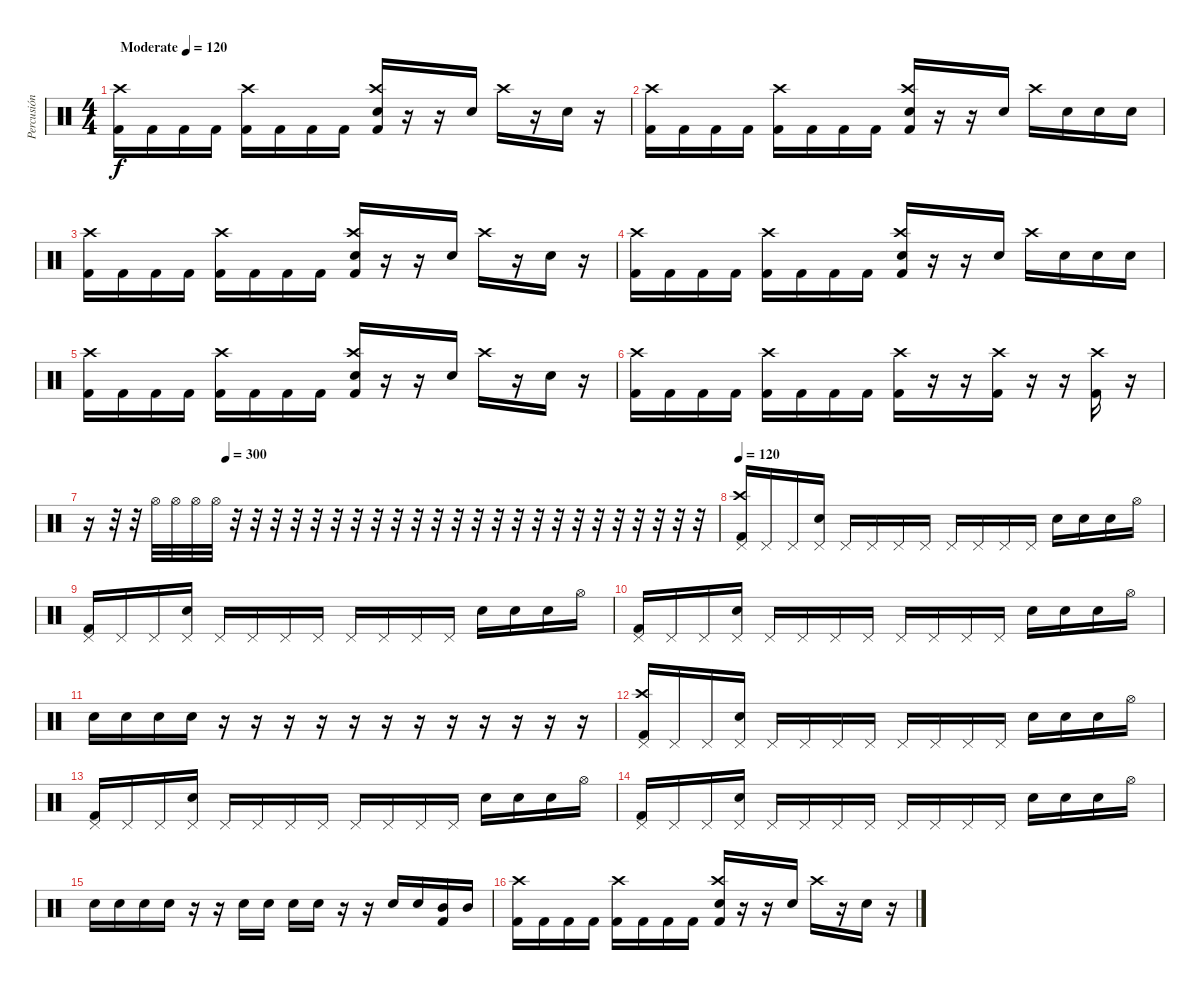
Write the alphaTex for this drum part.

\track ("Percusión" "Percusión") {instrument percussion}
\staff {score}
\articulation defaults
\ts (4 4)
\tempo (120 "Moderate")
\clef neutral
\ks c
("Kick (hit) 2" "Crash high (hit)").16{dy f} "Kick (hit) 2".16 "Kick (hit) 2".16 "Kick (hit) 2".16 ("Kick (hit) 2" "Crash high (hit)").16 "Kick (hit) 2".16 "Kick (hit) 2".16 "Kick (hit) 2".16 ("Kick (hit) 2" "Crash high (hit)" "Electric Snare (hit)").16 r.16 r.16 "Electric Snare (hit)".16 "Crash high (hit)".16 r.16 "Electric Snare (hit)".16 r.16 |
("Kick (hit) 2" "Crash high (hit)").16 "Kick (hit) 2".16 "Kick (hit) 2".16 "Kick (hit) 2".16 ("Kick (hit) 2" "Crash high (hit)").16 "Kick (hit) 2".16 "Kick (hit) 2".16 "Kick (hit) 2".16 ("Kick (hit) 2" "Crash high (hit)" "Electric Snare (hit)").16 r.16 r.16 "Electric Snare (hit)".16 "Crash high (hit)".16 "Electric Snare (hit)".16 "Electric Snare (hit)".16 "Electric Snare (hit)".16 |
("Kick (hit) 2" "Crash high (hit)").16 "Kick (hit) 2".16 "Kick (hit) 2".16 "Kick (hit) 2".16 ("Kick (hit) 2" "Crash high (hit)").16 "Kick (hit) 2".16 "Kick (hit) 2".16 "Kick (hit) 2".16 ("Kick (hit) 2" "Crash high (hit)" "Electric Snare (hit)").16 r.16 r.16 "Electric Snare (hit)".16 "Crash high (hit)".16 r.16 "Electric Snare (hit)".16 r.16 |
("Kick (hit) 2" "Crash high (hit)").16 "Kick (hit) 2".16 "Kick (hit) 2".16 "Kick (hit) 2".16 ("Kick (hit) 2" "Crash high (hit)").16 "Kick (hit) 2".16 "Kick (hit) 2".16 "Kick (hit) 2".16 ("Kick (hit) 2" "Crash high (hit)" "Electric Snare (hit)").16 r.16 r.16 "Electric Snare (hit)".16 "Crash high (hit)".16 "Electric Snare (hit)".16 "Electric Snare (hit)".16 "Electric Snare (hit)".16 |
("Kick (hit) 2" "Crash high (hit)").16 "Kick (hit) 2".16 "Kick (hit) 2".16 "Kick (hit) 2".16 ("Kick (hit) 2" "Crash high (hit)").16 "Kick (hit) 2".16 "Kick (hit) 2".16 "Kick (hit) 2".16 ("Kick (hit) 2" "Crash high (hit)" "Electric Snare (hit)").16 r.16 r.16 "Electric Snare (hit)".16 "Crash high (hit)".16 r.16 "Electric Snare (hit)".16 r.16 |
("Kick (hit) 2" "Crash high (hit)").16 "Kick (hit) 2".16 "Kick (hit) 2".16 "Kick (hit) 2".16 ("Kick (hit) 2" "Crash high (hit)").16 "Kick (hit) 2".16 "Kick (hit) 2".16 "Kick (hit) 2".16 ("Kick (hit) 2" "Crash high (hit)").16 r.16 r.16 ("Kick (hit) 2" "Crash high (hit)").16 r.16 r.16 ("Kick (hit) 2" "Crash high (hit)").16 r.16 |
\tempo (300 0.21875)
r.16 r.32 r.32 "Hi-Hat (open)".32 "Hi-Hat (open)".32 "Hi-Hat (open)".32 "Hi-Hat (open)".32 r.32 r.32 r.32 r.32 r.32 r.32 r.32 r.32 r.32 r.32 r.32 r.32 r.32 r.32 r.32 r.32 r.32 r.32 r.32 r.32 r.32 r.32 r.32 r.32 |
\tempo 120
("Crash high (hit)" "Pedal Hi-Hat (hit)" "Kick (hit) 2").16 "Pedal Hi-Hat (hit)".16 "Pedal Hi-Hat (hit)".16 ("Pedal Hi-Hat (hit)" "Electric Snare (hit)").16 "Pedal Hi-Hat (hit)".16 "Pedal Hi-Hat (hit)".16 "Pedal Hi-Hat (hit)".16 "Pedal Hi-Hat (hit)".16 "Pedal Hi-Hat (hit)".16 "Pedal Hi-Hat (hit)".16 "Pedal Hi-Hat (hit)".16 "Pedal Hi-Hat (hit)".16 "Electric Snare (hit)".16 "Electric Snare (hit)".16 "Electric Snare (hit)".16 "Hi-Hat (open)".16 |
("Pedal Hi-Hat (hit)" "Kick (hit) 2").16 "Pedal Hi-Hat (hit)".16 "Pedal Hi-Hat (hit)".16 ("Pedal Hi-Hat (hit)" "Electric Snare (hit)").16 "Pedal Hi-Hat (hit)".16 "Pedal Hi-Hat (hit)".16 "Pedal Hi-Hat (hit)".16 "Pedal Hi-Hat (hit)".16 "Pedal Hi-Hat (hit)".16 "Pedal Hi-Hat (hit)".16 "Pedal Hi-Hat (hit)".16 "Pedal Hi-Hat (hit)".16 "Electric Snare (hit)".16 "Electric Snare (hit)".16 "Electric Snare (hit)".16 "Hi-Hat (open)".16 |
("Pedal Hi-Hat (hit)" "Kick (hit) 2").16 "Pedal Hi-Hat (hit)".16 "Pedal Hi-Hat (hit)".16 ("Pedal Hi-Hat (hit)" "Electric Snare (hit)").16 "Pedal Hi-Hat (hit)".16 "Pedal Hi-Hat (hit)".16 "Pedal Hi-Hat (hit)".16 "Pedal Hi-Hat (hit)".16 "Pedal Hi-Hat (hit)".16 "Pedal Hi-Hat (hit)".16 "Pedal Hi-Hat (hit)".16 "Pedal Hi-Hat (hit)".16 "Electric Snare (hit)".16 "Electric Snare (hit)".16 "Electric Snare (hit)".16 "Hi-Hat (open)".16 |
"Electric Snare (hit)".16 "Electric Snare (hit)".16 "Electric Snare (hit)".16 "Electric Snare (hit)".16 r.16 r.16 r.16 r.16 r.16 r.16 r.16 r.16 r.16 r.16 r.16 r.16 |
("Crash high (hit)" "Pedal Hi-Hat (hit)" "Kick (hit) 2").16 "Pedal Hi-Hat (hit)".16 "Pedal Hi-Hat (hit)".16 ("Pedal Hi-Hat (hit)" "Electric Snare (hit)").16 "Pedal Hi-Hat (hit)".16 "Pedal Hi-Hat (hit)".16 "Pedal Hi-Hat (hit)".16 "Pedal Hi-Hat (hit)".16 "Pedal Hi-Hat (hit)".16 "Pedal Hi-Hat (hit)".16 "Pedal Hi-Hat (hit)".16 "Pedal Hi-Hat (hit)".16 "Electric Snare (hit)".16 "Electric Snare (hit)".16 "Electric Snare (hit)".16 "Hi-Hat (open)".16 |
("Pedal Hi-Hat (hit)" "Kick (hit) 2").16 "Pedal Hi-Hat (hit)".16 "Pedal Hi-Hat (hit)".16 ("Pedal Hi-Hat (hit)" "Electric Snare (hit)").16 "Pedal Hi-Hat (hit)".16 "Pedal Hi-Hat (hit)".16 "Pedal Hi-Hat (hit)".16 "Pedal Hi-Hat (hit)".16 "Pedal Hi-Hat (hit)".16 "Pedal Hi-Hat (hit)".16 "Pedal Hi-Hat (hit)".16 "Pedal Hi-Hat (hit)".16 "Electric Snare (hit)".16 "Electric Snare (hit)".16 "Electric Snare (hit)".16 "Hi-Hat (open)".16 |
("Pedal Hi-Hat (hit)" "Kick (hit) 2").16 "Pedal Hi-Hat (hit)".16 "Pedal Hi-Hat (hit)".16 ("Pedal Hi-Hat (hit)" "Electric Snare (hit)").16 "Pedal Hi-Hat (hit)".16 "Pedal Hi-Hat (hit)".16 "Pedal Hi-Hat (hit)".16 "Pedal Hi-Hat (hit)".16 "Pedal Hi-Hat (hit)".16 "Pedal Hi-Hat (hit)".16 "Pedal Hi-Hat (hit)".16 "Pedal Hi-Hat (hit)".16 "Electric Snare (hit)".16 "Electric Snare (hit)".16 "Electric Snare (hit)".16 "Hi-Hat (open)".16 |
"Electric Snare (hit)".16 "Electric Snare (hit)".16 "Electric Snare (hit)".16 "Electric Snare (hit)".16 r.16 r.16 "Electric Snare (hit)".16 "Electric Snare (hit)".16 "Electric Snare (hit)".16 "Electric Snare (hit)".16 r.16 r.16 "Electric Snare (hit)".16 "Electric Snare (hit)".16 ("Mid Tom (hit)" "Kick (hit) 2").16 "Mid Tom (hit)".16 |
("Kick (hit) 2" "Crash high (hit)").16 "Kick (hit) 2".16 "Kick (hit) 2".16 "Kick (hit) 2".16 ("Kick (hit) 2" "Crash high (hit)").16 "Kick (hit) 2".16 "Kick (hit) 2".16 "Kick (hit) 2".16 ("Kick (hit) 2" "Crash high (hit)" "Electric Snare (hit)").16 r.16 r.16 "Electric Snare (hit)".16 "Crash high (hit)".16 r.16 "Electric Snare (hit)".16 r.16
